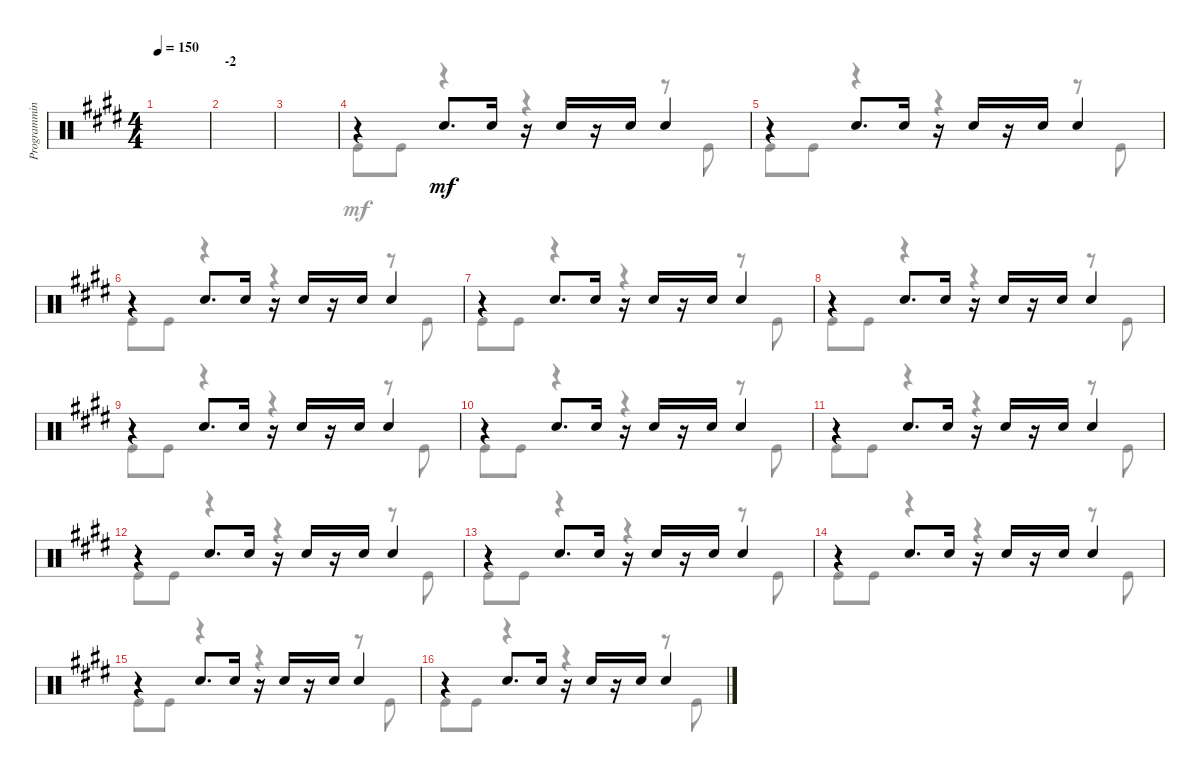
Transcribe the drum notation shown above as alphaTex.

\track ("Programming" "Programmin") {instrument percussion}
\staff {score}
\articulation defaults
\voice
\ts (4 4)
\tempo 150
\clef neutral
\ks e
|
\section ("" "-2")
|
|
r.4 "Snare (hit) 2".8{d dy mf} "Snare (hit) 2".16 r.16 "Snare (hit) 2".16 r.16 "Snare (hit) 2".16 "Snare (hit) 2".4 |
r.4 "Snare (hit) 2".8{d} "Snare (hit) 2".16 r.16 "Snare (hit) 2".16 r.16 "Snare (hit) 2".16 "Snare (hit) 2".4 |
r.4 "Snare (hit) 2".8{d} "Snare (hit) 2".16 r.16 "Snare (hit) 2".16 r.16 "Snare (hit) 2".16 "Snare (hit) 2".4 |
r.4 "Snare (hit) 2".8{d} "Snare (hit) 2".16 r.16 "Snare (hit) 2".16 r.16 "Snare (hit) 2".16 "Snare (hit) 2".4 |
r.4 "Snare (hit) 2".8{d} "Snare (hit) 2".16 r.16 "Snare (hit) 2".16 r.16 "Snare (hit) 2".16 "Snare (hit) 2".4 |
r.4 "Snare (hit) 2".8{d} "Snare (hit) 2".16 r.16 "Snare (hit) 2".16 r.16 "Snare (hit) 2".16 "Snare (hit) 2".4 |
r.4 "Snare (hit) 2".8{d} "Snare (hit) 2".16 r.16 "Snare (hit) 2".16 r.16 "Snare (hit) 2".16 "Snare (hit) 2".4 |
r.4 "Snare (hit) 2".8{d} "Snare (hit) 2".16 r.16 "Snare (hit) 2".16 r.16 "Snare (hit) 2".16 "Snare (hit) 2".4 |
r.4 "Snare (hit) 2".8{d} "Snare (hit) 2".16 r.16 "Snare (hit) 2".16 r.16 "Snare (hit) 2".16 "Snare (hit) 2".4 |
r.4 "Snare (hit) 2".8{d} "Snare (hit) 2".16 r.16 "Snare (hit) 2".16 r.16 "Snare (hit) 2".16 "Snare (hit) 2".4 |
r.4 "Snare (hit) 2".8{d} "Snare (hit) 2".16 r.16 "Snare (hit) 2".16 r.16 "Snare (hit) 2".16 "Snare (hit) 2".4 |
r.4 "Snare (hit) 2".8{d} "Snare (hit) 2".16 r.16 "Snare (hit) 2".16 r.16 "Snare (hit) 2".16 "Snare (hit) 2".4 |
r.4 "Snare (hit) 2".8{d} "Snare (hit) 2".16 r.16 "Snare (hit) 2".16 r.16 "Snare (hit) 2".16 "Snare (hit) 2".4
\voice
\clef neutral
\ottava regular
\simile none
\ks e
|
|
|
"Kick (hit)".8{dy mf} "Kick (hit)".8 r.4 r.4 r.8 "Kick (hit)".8 |
"Kick (hit)".8 "Kick (hit)".8 r.4 r.4 r.8 "Kick (hit)".8 |
"Kick (hit)".8 "Kick (hit)".8 r.4 r.4 r.8 "Kick (hit)".8 |
"Kick (hit)".8 "Kick (hit)".8 r.4 r.4 r.8 "Kick (hit)".8 |
"Kick (hit)".8 "Kick (hit)".8 r.4 r.4 r.8 "Kick (hit)".8 |
"Kick (hit)".8 "Kick (hit)".8 r.4 r.4 r.8 "Kick (hit)".8 |
"Kick (hit)".8 "Kick (hit)".8 r.4 r.4 r.8 "Kick (hit)".8 |
"Kick (hit)".8 "Kick (hit)".8 r.4 r.4 r.8 "Kick (hit)".8 |
"Kick (hit)".8 "Kick (hit)".8 r.4 r.4 r.8 "Kick (hit)".8 |
"Kick (hit)".8 "Kick (hit)".8 r.4 r.4 r.8 "Kick (hit)".8 |
"Kick (hit)".8 "Kick (hit)".8 r.4 r.4 r.8 "Kick (hit)".8 |
"Kick (hit)".8 "Kick (hit)".8 r.4 r.4 r.8 "Kick (hit)".8 |
"Kick (hit)".8 "Kick (hit)".8 r.4 r.4 r.8 "Kick (hit)".8
